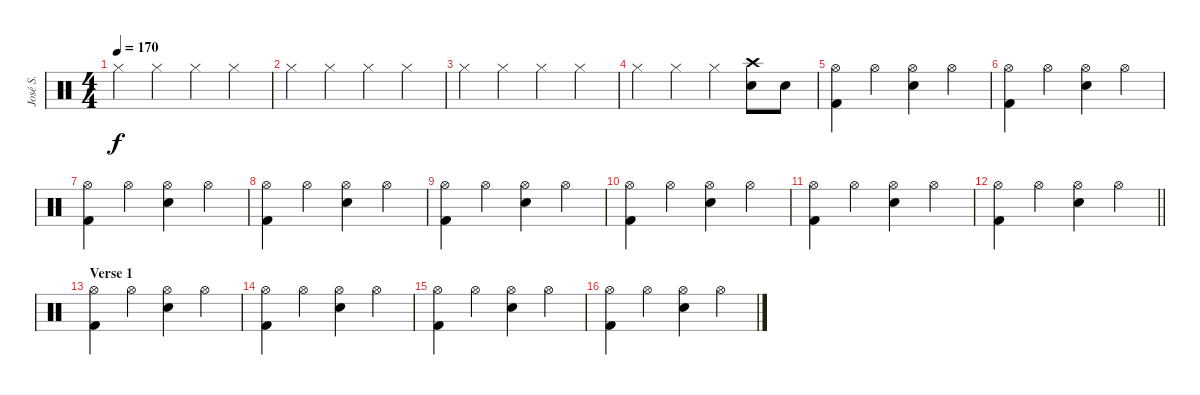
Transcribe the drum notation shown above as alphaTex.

\track ("José S." "José S.") {instrument percussion}
\staff {score}
\articulation defaults
\ts (4 4)
\tempo 170
\clef neutral
\ks c "Hi-Hat (closed)".4{dy f} "Hi-Hat (closed)".4 "Hi-Hat (closed)".4 "Hi-Hat (closed)".4
|
"Hi-Hat (closed)".4 "Hi-Hat (closed)".4 "Hi-Hat (closed)".4 "Hi-Hat (closed)".4 |
"Hi-Hat (closed)".4 "Hi-Hat (closed)".4 "Hi-Hat (closed)".4 "Hi-Hat (closed)".4 |
"Hi-Hat (closed)".4 "Hi-Hat (closed)".4 "Hi-Hat (closed)".4 ("Crash high (hit)" "Electric Snare (hit)").8 "Electric Snare (hit)".8 |
("Hi-Hat (open)" "Kick (hit) 2").4 "Hi-Hat (open)".4 ("Hi-Hat (open)" "Electric Snare (hit)").4 "Hi-Hat (open)".4 |
("Hi-Hat (open)" "Kick (hit) 2").4 "Hi-Hat (open)".4 ("Hi-Hat (open)" "Electric Snare (hit)").4 "Hi-Hat (open)".4 |
("Hi-Hat (open)" "Kick (hit) 2").4 "Hi-Hat (open)".4 ("Hi-Hat (open)" "Electric Snare (hit)").4 "Hi-Hat (open)".4 |
("Hi-Hat (open)" "Kick (hit) 2").4 "Hi-Hat (open)".4 ("Hi-Hat (open)" "Electric Snare (hit)").4 "Hi-Hat (open)".4 |
("Hi-Hat (open)" "Kick (hit) 2").4 "Hi-Hat (open)".4 ("Hi-Hat (open)" "Electric Snare (hit)").4 "Hi-Hat (open)".4 |
("Hi-Hat (open)" "Kick (hit) 2").4 "Hi-Hat (open)".4 ("Hi-Hat (open)" "Electric Snare (hit)").4 "Hi-Hat (open)".4 |
("Hi-Hat (open)" "Kick (hit) 2").4 "Hi-Hat (open)".4 ("Hi-Hat (open)" "Electric Snare (hit)").4 "Hi-Hat (open)".4 |
\barLineRight lightlight
("Hi-Hat (open)" "Kick (hit) 2").4 "Hi-Hat (open)".4 ("Hi-Hat (open)" "Electric Snare (hit)").4 "Hi-Hat (open)".4 |
\section ("" "Verse 1")
("Hi-Hat (open)" "Kick (hit) 2").4 "Hi-Hat (open)".4 ("Hi-Hat (open)" "Electric Snare (hit)").4 "Hi-Hat (open)".4 |
("Hi-Hat (open)" "Kick (hit) 2").4 "Hi-Hat (open)".4 ("Hi-Hat (open)" "Electric Snare (hit)").4 "Hi-Hat (open)".4 |
("Hi-Hat (open)" "Kick (hit) 2").4 "Hi-Hat (open)".4 ("Hi-Hat (open)" "Electric Snare (hit)").4 "Hi-Hat (open)".4 |
("Hi-Hat (open)" "Kick (hit) 2").4 "Hi-Hat (open)".4 ("Hi-Hat (open)" "Electric Snare (hit)").4 "Hi-Hat (open)".4
